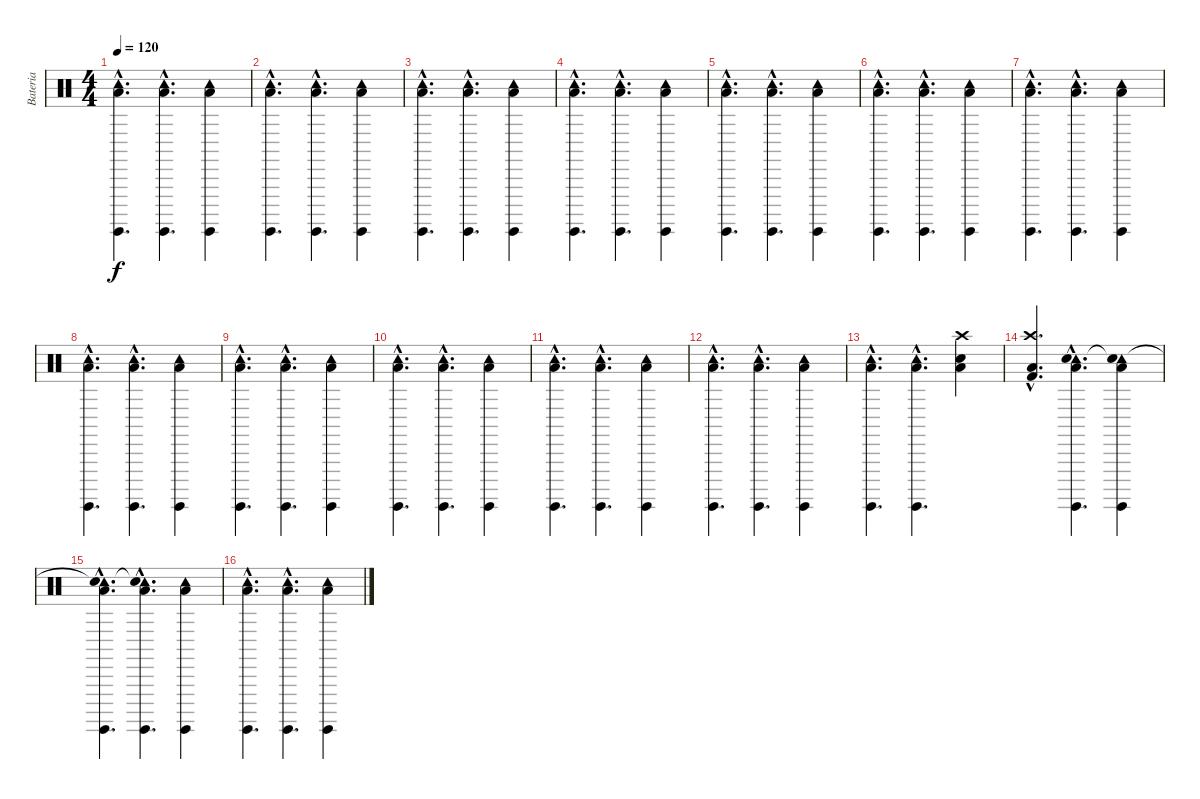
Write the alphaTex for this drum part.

\track ("Bateria" "Bateria") {instrument percussion}
\staff {score}
\articulation defaults
\ts (4 4)
\tempo 120
\clef neutral
\ks c
("Low Tom (hit)"{hac} "Surdo (hit)"{hac} "Tambourine (hit)"{hac}).4{d dy f} ("Low Tom (hit)"{hac} "Surdo (hit)"{hac} "Tambourine (hit)"{hac}).4{d} ("Low Tom (hit)" "Surdo (hit)" "Tambourine (hit)").4 |
("Low Tom (hit)"{hac} "Surdo (hit)"{hac} "Tambourine (hit)"{hac}).4{d} ("Low Tom (hit)"{hac} "Surdo (hit)"{hac} "Tambourine (hit)"{hac}).4{d} ("Low Tom (hit)" "Surdo (hit)" "Tambourine (hit)").4 |
("Low Tom (hit)"{hac} "Surdo (hit)"{hac} "Tambourine (hit)"{hac}).4{d} ("Low Tom (hit)"{hac} "Surdo (hit)"{hac} "Tambourine (hit)"{hac}).4{d} ("Low Tom (hit)" "Surdo (hit)" "Tambourine (hit)").4 |
("Low Tom (hit)"{hac} "Surdo (hit)"{hac} "Tambourine (hit)"{hac}).4{d} ("Low Tom (hit)"{hac} "Surdo (hit)"{hac} "Tambourine (hit)"{hac}).4{d} ("Low Tom (hit)" "Surdo (hit)" "Tambourine (hit)").4 |
("Low Tom (hit)"{hac} "Surdo (hit)"{hac} "Tambourine (hit)"{hac}).4{d} ("Low Tom (hit)"{hac} "Surdo (hit)"{hac} "Tambourine (hit)"{hac}).4{d} ("Low Tom (hit)" "Surdo (hit)" "Tambourine (hit)").4 |
("Low Tom (hit)"{hac} "Surdo (hit)"{hac} "Tambourine (hit)"{hac}).4{d} ("Low Tom (hit)"{hac} "Surdo (hit)"{hac} "Tambourine (hit)"{hac}).4{d} ("Low Tom (hit)" "Surdo (hit)" "Tambourine (hit)").4 |
("Low Tom (hit)"{hac} "Surdo (hit)"{hac} "Tambourine (hit)"{hac}).4{d} ("Low Tom (hit)"{hac} "Surdo (hit)"{hac} "Tambourine (hit)"{hac}).4{d} ("Low Tom (hit)" "Surdo (hit)" "Tambourine (hit)").4 |
("Low Tom (hit)"{hac} "Surdo (hit)"{hac} "Tambourine (hit)"{hac}).4{d} ("Low Tom (hit)"{hac} "Surdo (hit)"{hac} "Tambourine (hit)"{hac}).4{d} ("Low Tom (hit)" "Surdo (hit)" "Tambourine (hit)").4 |
("Low Tom (hit)"{hac} "Surdo (hit)"{hac} "Tambourine (hit)"{hac}).4{d} ("Low Tom (hit)"{hac} "Surdo (hit)"{hac} "Tambourine (hit)"{hac}).4{d} ("Low Tom (hit)" "Surdo (hit)" "Tambourine (hit)").4 |
("Low Tom (hit)"{hac} "Surdo (hit)"{hac} "Tambourine (hit)"{hac}).4{d} ("Low Tom (hit)"{hac} "Surdo (hit)"{hac} "Tambourine (hit)"{hac}).4{d} ("Low Tom (hit)" "Surdo (hit)" "Tambourine (hit)").4 |
("Low Tom (hit)"{hac} "Surdo (hit)"{hac} "Tambourine (hit)"{hac}).4{d} ("Low Tom (hit)"{hac} "Surdo (hit)"{hac} "Tambourine (hit)"{hac}).4{d} ("Low Tom (hit)" "Surdo (hit)" "Tambourine (hit)").4 |
("Low Tom (hit)"{hac} "Surdo (hit)"{hac} "Tambourine (hit)"{hac}).4{d} ("Low Tom (hit)"{hac} "Surdo (hit)"{hac} "Tambourine (hit)"{hac}).4{d} ("Low Tom (hit)" "Surdo (hit)" "Tambourine (hit)").4 |
("Low Tom (hit)"{hac} "Surdo (hit)"{hac} "Tambourine (hit)"{hac}).4{d} ("Low Tom (hit)"{hac} "Surdo (hit)"{hac} "Tambourine (hit)"{hac}).4{d} ("Crash high (hit)" "Low Tom (hit)" "Electric Snare (hit)").4 |
("Kick (hit) 2"{hac} "Low Tom (hit)"{hac} "Crash high (hit)"{hac}).4{d} ("Low Tom (hit)"{hac} "Surdo (hit)"{hac} "Tambourine (hit)"{hac} "Snare (hit)"{hac}).4{d} ("Low Tom (hit)" "Surdo (hit)" "Tambourine (hit)" "Snare (hit)"{t}).4 |
("Low Tom (hit)"{hac} "Surdo (hit)"{hac} "Tambourine (hit)"{hac} "Snare (hit)"{hac t}).4{d} ("Low Tom (hit)"{hac} "Surdo (hit)"{hac} "Tambourine (hit)"{hac} "Snare (hit)"{hac t}).4{d} ("Low Tom (hit)" "Surdo (hit)" "Tambourine (hit)").4 |
("Low Tom (hit)"{hac} "Surdo (hit)"{hac} "Tambourine (hit)"{hac}).4{d} ("Low Tom (hit)"{hac} "Surdo (hit)"{hac} "Tambourine (hit)"{hac}).4{d} ("Low Tom (hit)" "Surdo (hit)" "Tambourine (hit)").4
